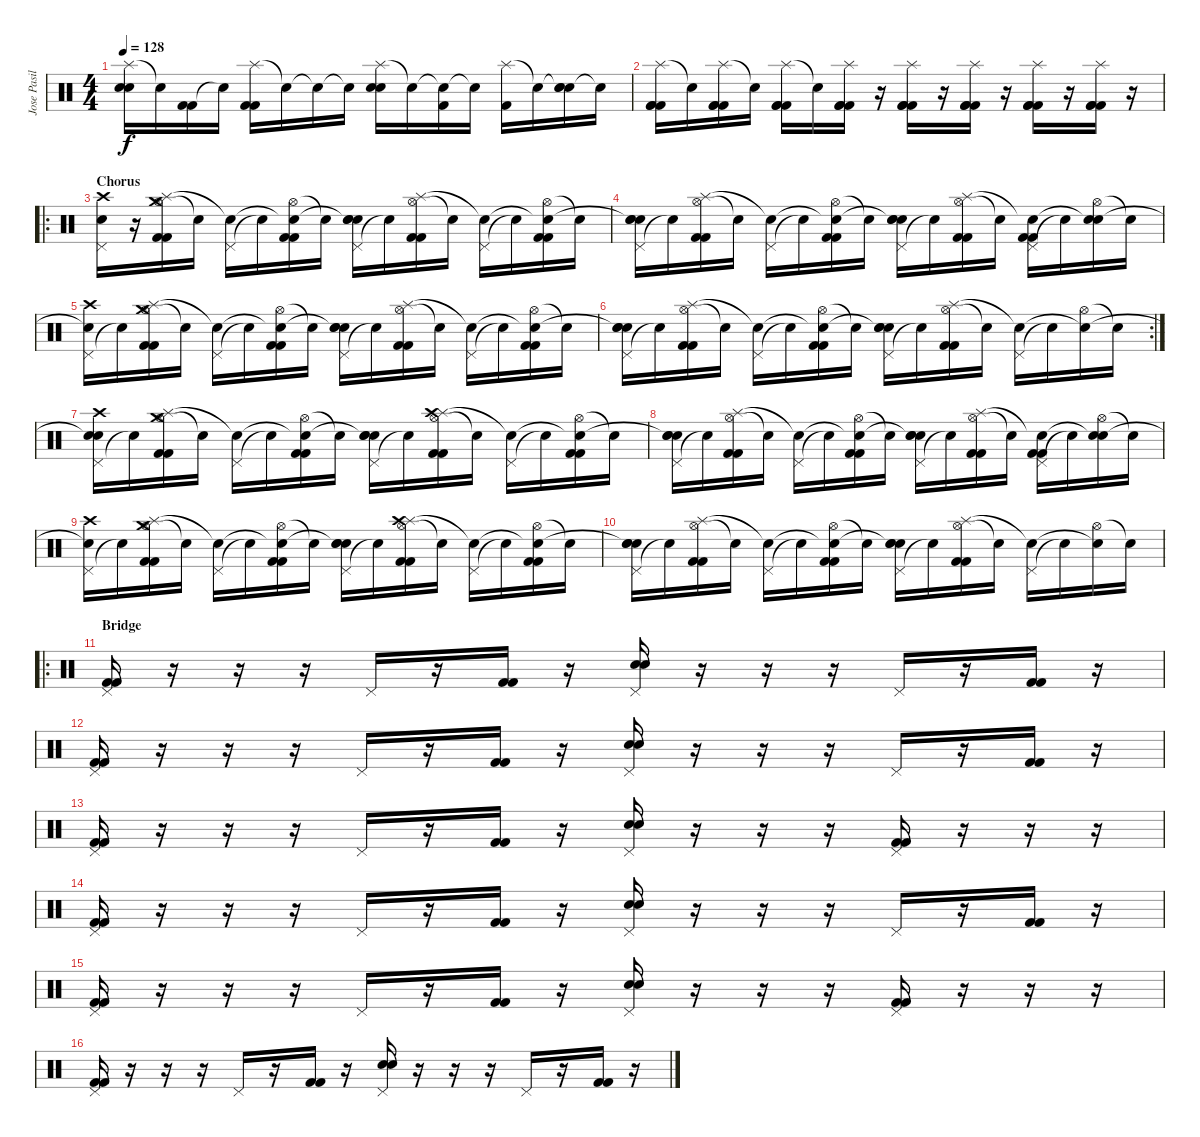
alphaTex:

\track ("Jose Pasillas" "Jose Pasil") {instrument percussion}
\staff {score}
\articulation defaults
\ts (4 4)
\tempo 128
\clef neutral
\ks c
("Splash (hit)" "Electric Snare (hit)" "Electric Snare (hit)").16{dy f} "Snare (hit)"{t}.16 ("Kick (hit) 2" "Kick (hit) 2").16 "Snare (hit)"{t}.16 ("Splash (hit)" "Kick (hit) 2" "Kick (hit) 2").16 "Snare (hit)"{t}.16 "Snare (hit)"{t}.16 "Snare (hit)"{t}.16 ("Splash (hit)" "Electric Snare (hit)" "Electric Snare (hit)").16 "Snare (hit)"{t}.16 ("Snare (hit)"{t} "Kick (hit) 2").16 "Snare (hit)"{t}.16 ("Splash (hit)" "Kick (hit) 2").16 "Snare (hit)"{t}.16 ("Snare (hit)"{t} "Electric Snare (hit)" "Electric Snare (hit)").16 "Snare (hit)"{t}.16 |
("Splash (hit)" "Kick (hit) 2" "Kick (hit) 2" "Kick (hit) 2").16 "Snare (hit)"{t}.16 ("Splash (hit)" "Kick (hit) 2" "Kick (hit) 2" "Kick (hit) 2").16 "Snare (hit)"{t}.16 ("Splash (hit)" "Kick (hit) 2" "Kick (hit) 2" "Kick (hit) 2").16 "Snare (hit)"{t}.16 ("Splash (hit)" "Kick (hit) 2" "Kick (hit) 2" "Kick (hit) 2").16 r.16 ("Splash (hit)" "Kick (hit) 2" "Kick (hit) 2" "Kick (hit) 2").16 r.16 ("Splash (hit)" "Kick (hit) 2" "Kick (hit) 2" "Kick (hit) 2").16 r.16 ("Splash (hit)" "Kick (hit) 2" "Kick (hit) 2" "Kick (hit) 2").16 r.16 ("Splash (hit)" "Kick (hit) 2" "Kick (hit) 2" "Kick (hit) 2").16 r.16 |
\ro
\section ("" "Chorus")
("Pedal Hi-Hat (hit)" "Electric Snare (hit)" "Crash high (hit)").16 r.16 ("Hi-Hat (open)" "Splash (hit)" "Kick (hit) 2" "Kick (hit) 2" "Crash medium (hit)").16 "Snare (hit)"{t}.16 ("Pedal Hi-Hat (hit)" "Snare (hit)"{t}).16 "Snare (hit)"{t}.16 ("Hi-Hat (open)" "Snare (hit)"{t} "Kick (hit) 2" "Kick (hit) 2").16 "Snare (hit)"{t}.16 ("Pedal Hi-Hat (hit)" "Snare (hit)"{t} "Electric Snare (hit)" "Electric Snare (hit)").16 "Snare (hit)"{t}.16 ("Hi-Hat (open)" "Splash (hit)" "Kick (hit) 2" "Kick (hit) 2").16 "Snare (hit)"{t}.16 ("Pedal Hi-Hat (hit)" "Snare (hit)"{t}).16 "Snare (hit)"{t}.16 ("Hi-Hat (open)" "Snare (hit)"{t} "Kick (hit) 2" "Kick (hit) 2").16 "Snare (hit)"{t}.16 |
("Pedal Hi-Hat (hit)" "Snare (hit)"{t} "Electric Snare (hit)" "Electric Snare (hit)").16 "Snare (hit)"{t}.16 ("Hi-Hat (open)" "Splash (hit)" "Kick (hit) 2" "Kick (hit) 2").16 "Snare (hit)"{t}.16 ("Pedal Hi-Hat (hit)" "Snare (hit)"{t}).16 "Snare (hit)"{t}.16 ("Hi-Hat (open)" "Snare (hit)"{t} "Kick (hit) 2" "Kick (hit) 2").16 "Snare (hit)"{t}.16 ("Pedal Hi-Hat (hit)" "Snare (hit)"{t} "Electric Snare (hit)" "Electric Snare (hit)").16 "Snare (hit)"{t}.16 ("Hi-Hat (open)" "Splash (hit)" "Kick (hit) 2" "Kick (hit) 2").16 "Snare (hit)"{t}.16 ("Pedal Hi-Hat (hit)" "Snare (hit)"{t} "Kick (hit) 2" "Kick (hit) 2").16 "Snare (hit)"{t}.16 ("Hi-Hat (open)" "Snare (hit)"{t} "Electric Snare (hit)").16 "Snare (hit)"{t}.16 |
("Pedal Hi-Hat (hit)" "Snare (hit)"{t} "Crash high (hit)").16 "Snare (hit)"{t}.16 ("Hi-Hat (open)" "Splash (hit)" "Kick (hit) 2" "Kick (hit) 2" "Crash medium (hit)").16 "Snare (hit)"{t}.16 ("Pedal Hi-Hat (hit)" "Snare (hit)"{t}).16 "Snare (hit)"{t}.16 ("Hi-Hat (open)" "Snare (hit)"{t} "Kick (hit) 2" "Kick (hit) 2").16 "Snare (hit)"{t}.16 ("Pedal Hi-Hat (hit)" "Snare (hit)"{t} "Electric Snare (hit)" "Electric Snare (hit)").16 "Snare (hit)"{t}.16 ("Hi-Hat (open)" "Splash (hit)" "Kick (hit) 2" "Kick (hit) 2").16 "Snare (hit)"{t}.16 ("Pedal Hi-Hat (hit)" "Snare (hit)"{t}).16 "Snare (hit)"{t}.16 ("Hi-Hat (open)" "Snare (hit)"{t} "Kick (hit) 2" "Kick (hit) 2").16 "Snare (hit)"{t}.16 |
\rc 2
("Pedal Hi-Hat (hit)" "Electric Snare (hit)"{t} "Electric Snare (hit)" "Electric Snare (hit)").16 "Snare (hit)"{t}.16 ("Hi-Hat (open)" "Splash (hit)" "Kick (hit) 2" "Kick (hit) 2").16 "Snare (hit)"{t}.16 ("Pedal Hi-Hat (hit)" "Snare (hit)"{t}).16 "Snare (hit)"{t}.16 ("Hi-Hat (open)" "Snare (hit)"{t} "Kick (hit) 2" "Kick (hit) 2").16 "Snare (hit)"{t}.16 ("Pedal Hi-Hat (hit)" "Snare (hit)"{t} "Electric Snare (hit)" "Electric Snare (hit)").16 "Snare (hit)"{t}.16 ("Hi-Hat (open)" "Splash (hit)" "Kick (hit) 2" "Kick (hit) 2").16 "Snare (hit)"{t}.16 ("Pedal Hi-Hat (hit)" "Snare (hit)"{t}).16 "Snare (hit)"{t}.16 ("Hi-Hat (open)" "Snare (hit)"{t}).16 "Snare (hit)"{t}.16 |
("Pedal Hi-Hat (hit)" "Snare (hit)"{t} "Electric Snare (hit)" "Crash high (hit)").16 "Snare (hit)"{t}.16 ("Hi-Hat (open)" "Splash (hit)" "Kick (hit) 2" "Kick (hit) 2" "Crash medium (hit)").16 "Snare (hit)"{t}.16 ("Pedal Hi-Hat (hit)" "Snare (hit)"{t}).16 "Snare (hit)"{t}.16 ("Hi-Hat (open)" "Snare (hit)"{t} "Kick (hit) 2" "Kick (hit) 2").16 "Snare (hit)"{t}.16 ("Pedal Hi-Hat (hit)" "Snare (hit)"{t} "Electric Snare (hit)" "Electric Snare (hit)").16 "Snare (hit)"{t}.16 ("Hi-Hat (open)" "Splash (hit)" "Kick (hit) 2" "Kick (hit) 2" "Crash high (hit)").16 "Snare (hit)"{t}.16 ("Pedal Hi-Hat (hit)" "Snare (hit)"{t}).16 "Snare (hit)"{t}.16 ("Hi-Hat (open)" "Snare (hit)"{t} "Kick (hit) 2" "Kick (hit) 2").16 "Snare (hit)"{t}.16 |
("Pedal Hi-Hat (hit)" "Snare (hit)"{t} "Electric Snare (hit)" "Electric Snare (hit)").16 "Snare (hit)"{t}.16 ("Hi-Hat (open)" "Splash (hit)" "Kick (hit) 2" "Kick (hit) 2").16 "Snare (hit)"{t}.16 ("Pedal Hi-Hat (hit)" "Snare (hit)"{t}).16 "Snare (hit)"{t}.16 ("Hi-Hat (open)" "Snare (hit)"{t} "Kick (hit) 2" "Kick (hit) 2").16 "Snare (hit)"{t}.16 ("Pedal Hi-Hat (hit)" "Snare (hit)"{t} "Electric Snare (hit)" "Electric Snare (hit)").16 "Snare (hit)"{t}.16 ("Hi-Hat (open)" "Splash (hit)" "Kick (hit) 2" "Kick (hit) 2").16 "Snare (hit)"{t}.16 ("Pedal Hi-Hat (hit)" "Snare (hit)"{t} "Kick (hit) 2" "Kick (hit) 2").16 "Snare (hit)"{t}.16 ("Hi-Hat (open)" "Snare (hit)"{t} "Electric Snare (hit)").16 "Snare (hit)"{t}.16 |
("Pedal Hi-Hat (hit)" "Snare (hit)"{t} "Crash high (hit)").16 "Snare (hit)"{t}.16 ("Hi-Hat (open)" "Splash (hit)" "Kick (hit) 2" "Kick (hit) 2" "Crash medium (hit)").16 "Snare (hit)"{t}.16 ("Pedal Hi-Hat (hit)" "Snare (hit)"{t}).16 "Snare (hit)"{t}.16 ("Hi-Hat (open)" "Snare (hit)"{t} "Kick (hit) 2" "Kick (hit) 2").16 "Snare (hit)"{t}.16 ("Pedal Hi-Hat (hit)" "Snare (hit)"{t} "Electric Snare (hit)" "Electric Snare (hit)").16 "Snare (hit)"{t}.16 ("Hi-Hat (open)" "Splash (hit)" "Kick (hit) 2" "Kick (hit) 2" "Crash high (hit)").16 "Snare (hit)"{t}.16 ("Pedal Hi-Hat (hit)" "Snare (hit)"{t}).16 "Snare (hit)"{t}.16 ("Hi-Hat (open)" "Snare (hit)"{t} "Kick (hit) 2" "Kick (hit) 2").16 "Snare (hit)"{t}.16 |
("Pedal Hi-Hat (hit)" "Electric Snare (hit)"{t} "Electric Snare (hit)" "Electric Snare (hit)").16 "Snare (hit)"{t}.16 ("Hi-Hat (open)" "Splash (hit)" "Kick (hit) 2" "Kick (hit) 2").16 "Snare (hit)"{t}.16 ("Pedal Hi-Hat (hit)" "Snare (hit)"{t}).16 "Snare (hit)"{t}.16 ("Hi-Hat (open)" "Snare (hit)"{t} "Kick (hit) 2" "Kick (hit) 2").16 "Snare (hit)"{t}.16 ("Pedal Hi-Hat (hit)" "Snare (hit)"{t} "Electric Snare (hit)" "Electric Snare (hit)").16 "Snare (hit)"{t}.16 ("Hi-Hat (open)" "Splash (hit)" "Kick (hit) 2" "Kick (hit) 2").16 "Snare (hit)"{t}.16 ("Pedal Hi-Hat (hit)" "Snare (hit)"{t}).16 "Snare (hit)"{t}.16 ("Hi-Hat (open)" "Snare (hit)"{t}).16 "Snare (hit)"{t}.16 |
\ro
\section ("" "Bridge")
("Pedal Hi-Hat (hit)" "Kick (hit) 2" "Kick (hit) 2").16 r.16 r.16 r.16 "Pedal Hi-Hat (hit)".16 r.16 ("Kick (hit) 2" "Kick (hit) 2").16 r.16 ("Pedal Hi-Hat (hit)" "Electric Snare (hit)" "Electric Snare (hit)").16 r.16 r.16 r.16 "Pedal Hi-Hat (hit)".16 r.16 ("Kick (hit) 2" "Kick (hit) 2").16 r.16 |
("Pedal Hi-Hat (hit)" "Kick (hit) 2" "Kick (hit) 2").16 r.16 r.16 r.16 "Pedal Hi-Hat (hit)".16 r.16 ("Kick (hit) 2" "Kick (hit) 2").16 r.16 ("Pedal Hi-Hat (hit)" "Electric Snare (hit)" "Electric Snare (hit)").16 r.16 r.16 r.16 "Pedal Hi-Hat (hit)".16 r.16 ("Kick (hit) 2" "Kick (hit) 2").16 r.16 |
("Pedal Hi-Hat (hit)" "Kick (hit) 2" "Kick (hit) 2").16 r.16 r.16 r.16 "Pedal Hi-Hat (hit)".16 r.16 ("Kick (hit) 2" "Kick (hit) 2").16 r.16 ("Pedal Hi-Hat (hit)" "Electric Snare (hit)" "Electric Snare (hit)").16 r.16 r.16 r.16 ("Pedal Hi-Hat (hit)" "Kick (hit) 2" "Kick (hit) 2").16 r.16 r.16 r.16 |
("Pedal Hi-Hat (hit)" "Kick (hit) 2" "Kick (hit) 2").16 r.16 r.16 r.16 "Pedal Hi-Hat (hit)".16 r.16 ("Kick (hit) 2" "Kick (hit) 2").16 r.16 ("Pedal Hi-Hat (hit)" "Electric Snare (hit)" "Electric Snare (hit)").16 r.16 r.16 r.16 "Pedal Hi-Hat (hit)".16 r.16 ("Kick (hit) 2" "Kick (hit) 2").16 r.16 |
("Pedal Hi-Hat (hit)" "Kick (hit) 2" "Kick (hit) 2").16 r.16 r.16 r.16 "Pedal Hi-Hat (hit)".16 r.16 ("Kick (hit) 2" "Kick (hit) 2").16 r.16 ("Pedal Hi-Hat (hit)" "Electric Snare (hit)" "Electric Snare (hit)").16 r.16 r.16 r.16 ("Pedal Hi-Hat (hit)" "Kick (hit) 2" "Kick (hit) 2").16 r.16 r.16 r.16 |
("Pedal Hi-Hat (hit)" "Kick (hit) 2" "Kick (hit) 2").16 r.16 r.16 r.16 "Pedal Hi-Hat (hit)".16 r.16 ("Kick (hit) 2" "Kick (hit) 2").16 r.16 ("Pedal Hi-Hat (hit)" "Electric Snare (hit)" "Electric Snare (hit)").16 r.16 r.16 r.16 "Pedal Hi-Hat (hit)".16 r.16 ("Kick (hit) 2" "Kick (hit) 2").16 r.16
